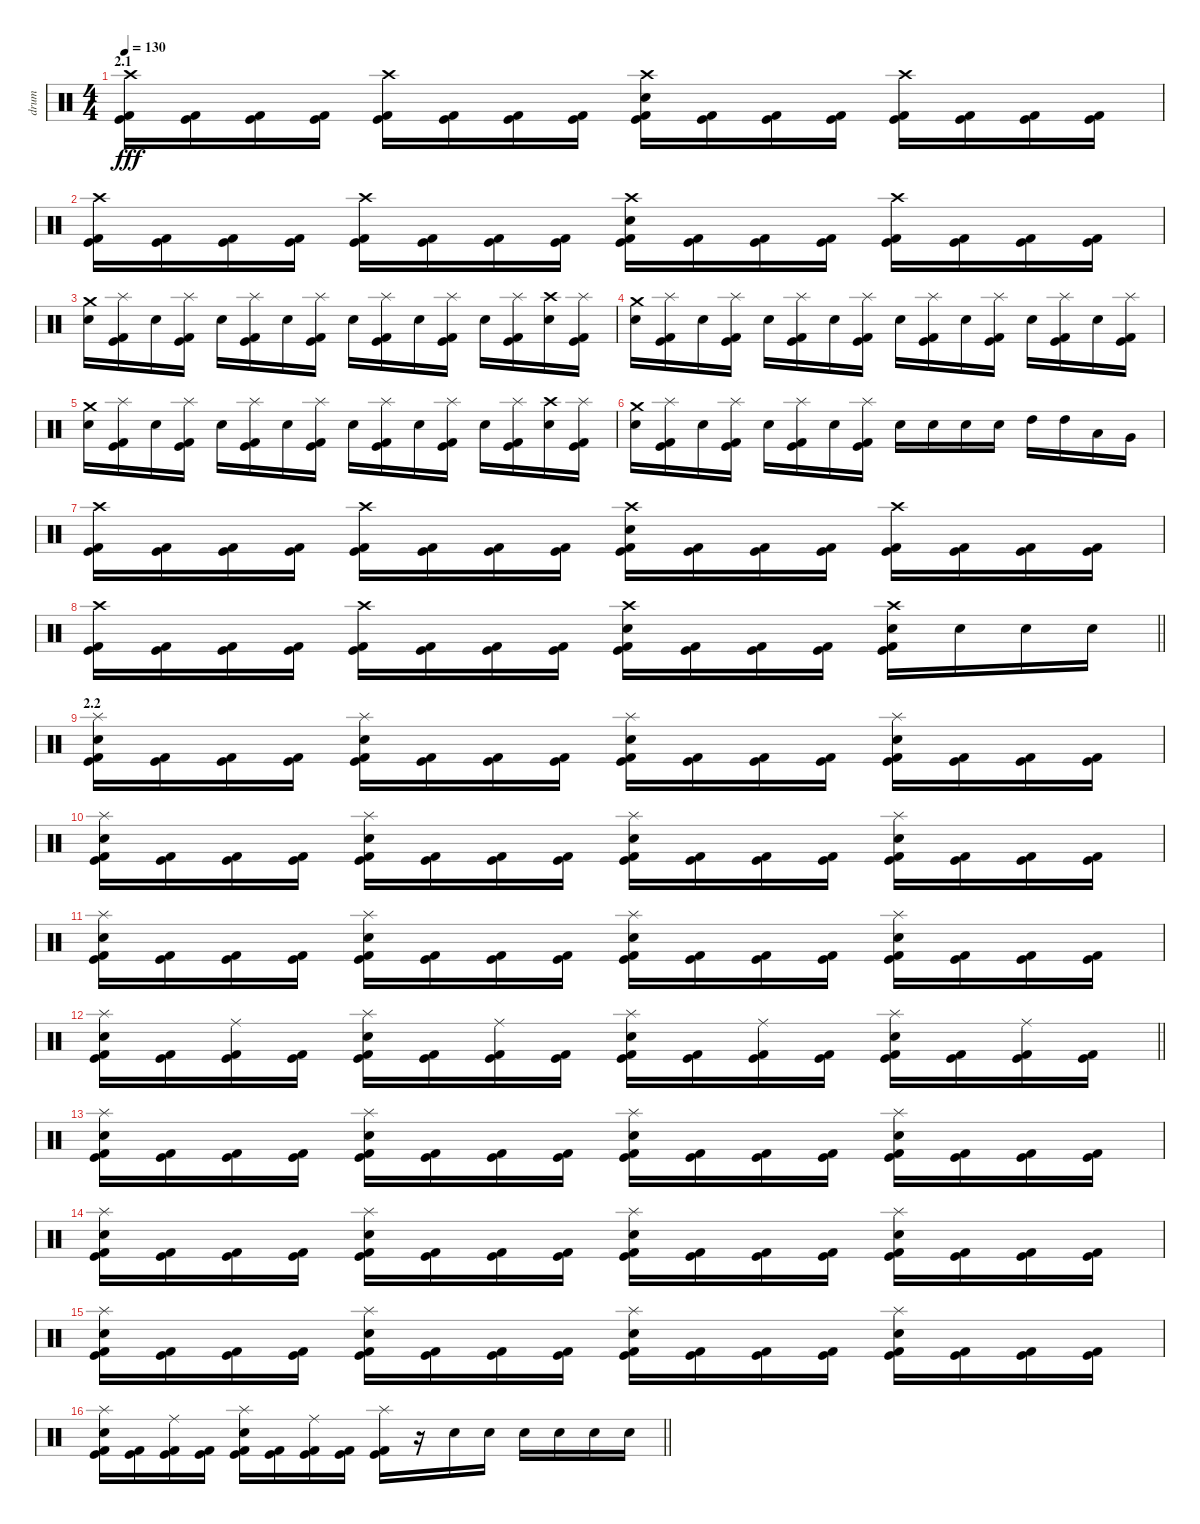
\track ("drum" "drum") {instrument percussion}
\staff {score}
\articulation defaults
\ts (4 4)
\section ("" "2.1")
\tempo 130
\clef neutral
\ks c
("Crash high (hit)" "Kick (hit)" "Kick (hit) 2").16{dy fff} ("Kick (hit)" "Kick (hit) 2").16 ("Kick (hit)" "Kick (hit) 2").16 ("Kick (hit)" "Kick (hit) 2").16 ("Crash high (hit)" "Kick (hit)" "Kick (hit) 2").16 ("Kick (hit)" "Kick (hit) 2").16 ("Kick (hit)" "Kick (hit) 2").16 ("Kick (hit)" "Kick (hit) 2").16 ("Crash high (hit)" "Snare (hit) 2" "Kick (hit)" "Kick (hit) 2").16 ("Kick (hit)" "Kick (hit) 2").16 ("Kick (hit)" "Kick (hit) 2").16 ("Kick (hit)" "Kick (hit) 2").16 ("Crash high (hit)" "Kick (hit)" "Kick (hit) 2").16 ("Kick (hit)" "Kick (hit) 2").16 ("Kick (hit)" "Kick (hit) 2").16 ("Kick (hit)" "Kick (hit) 2").16 |
("Crash high (hit)" "Kick (hit)" "Kick (hit) 2").16 ("Kick (hit)" "Kick (hit) 2").16 ("Kick (hit)" "Kick (hit) 2").16 ("Kick (hit)" "Kick (hit) 2").16 ("Crash high (hit)" "Kick (hit)" "Kick (hit) 2").16 ("Kick (hit)" "Kick (hit) 2").16 ("Kick (hit)" "Kick (hit) 2").16 ("Kick (hit)" "Kick (hit) 2").16 ("Crash high (hit)" "Snare (hit) 2" "Kick (hit)" "Kick (hit) 2").16 ("Kick (hit)" "Kick (hit) 2").16 ("Kick (hit)" "Kick (hit) 2").16 ("Kick (hit)" "Kick (hit) 2").16 ("Crash high (hit)" "Kick (hit)" "Kick (hit) 2").16 ("Kick (hit)" "Kick (hit) 2").16 ("Kick (hit)" "Kick (hit) 2").16 ("Kick (hit)" "Kick (hit) 2").16 |
("Crash medium (hit)" "Snare (hit) 2").16 ("Splash (hit)" "Kick (hit)" "Kick (hit) 2").16 "Snare (hit) 2".16 ("Splash (hit)" "Kick (hit)" "Kick (hit) 2").16 "Snare (hit) 2".16 ("Splash (hit)" "Kick (hit)" "Kick (hit) 2").16 "Snare (hit) 2".16 ("Splash (hit)" "Kick (hit)" "Kick (hit) 2").16 "Snare (hit) 2".16 ("Splash (hit)" "Kick (hit)" "Kick (hit) 2").16 "Snare (hit) 2".16 ("Splash (hit)" "Kick (hit)" "Kick (hit) 2").16 "Snare (hit) 2".16 ("Splash (hit)" "Kick (hit)" "Kick (hit) 2").16 ("Crash high (hit)" "Snare (hit) 2").16 ("Splash (hit)" "Kick (hit)" "Kick (hit) 2").16 |
("Crash medium (hit)" "Snare (hit) 2").16 ("Splash (hit)" "Kick (hit)" "Kick (hit) 2").16 "Snare (hit) 2".16 ("Splash (hit)" "Kick (hit)" "Kick (hit) 2").16 "Snare (hit) 2".16 ("Splash (hit)" "Kick (hit)" "Kick (hit) 2").16 "Snare (hit) 2".16 ("Splash (hit)" "Kick (hit)" "Kick (hit) 2").16 "Snare (hit) 2".16 ("Splash (hit)" "Kick (hit)" "Kick (hit) 2").16 "Snare (hit) 2".16 ("Splash (hit)" "Kick (hit)" "Kick (hit) 2").16 "Snare (hit) 2".16 ("Splash (hit)" "Kick (hit)" "Kick (hit) 2").16 "Snare (hit) 2".16 ("Splash (hit)" "Kick (hit)" "Kick (hit) 2").16 |
("Crash medium (hit)" "Snare (hit) 2").16 ("Splash (hit)" "Kick (hit)" "Kick (hit) 2").16 "Snare (hit) 2".16 ("Splash (hit)" "Kick (hit)" "Kick (hit) 2").16 "Snare (hit) 2".16 ("Splash (hit)" "Kick (hit)" "Kick (hit) 2").16 "Snare (hit) 2".16 ("Splash (hit)" "Kick (hit)" "Kick (hit) 2").16 "Snare (hit) 2".16 ("Splash (hit)" "Kick (hit)" "Kick (hit) 2").16 "Snare (hit) 2".16 ("Splash (hit)" "Kick (hit)" "Kick (hit) 2").16 "Snare (hit) 2".16 ("Splash (hit)" "Kick (hit)" "Kick (hit) 2").16 ("Crash high (hit)" "Snare (hit) 2").16 ("Splash (hit)" "Kick (hit)" "Kick (hit) 2").16 |
("Crash medium (hit)" "Snare (hit) 2").16 ("Splash (hit)" "Kick (hit)" "Kick (hit) 2").16 "Snare (hit) 2".16 ("Splash (hit)" "Kick (hit)" "Kick (hit) 2").16 "Snare (hit) 2".16 ("Splash (hit)" "Kick (hit)" "Kick (hit) 2").16 "Snare (hit) 2".16 ("Splash (hit)" "Kick (hit)" "Kick (hit) 2").16 "Snare (hit) 2".16 "Snare (hit) 2".16 "Snare (hit) 2".16 "Snare (hit) 2".16 "High Tom (hit)".16 "High Tom (hit)".16 "Low Tom (hit)".16 "Very Low Tom (hit)".16 |
("Crash high (hit)" "Kick (hit)" "Kick (hit) 2").16 ("Kick (hit)" "Kick (hit) 2").16 ("Kick (hit)" "Kick (hit) 2").16 ("Kick (hit)" "Kick (hit) 2").16 ("Crash high (hit)" "Kick (hit)" "Kick (hit) 2").16 ("Kick (hit)" "Kick (hit) 2").16 ("Kick (hit)" "Kick (hit) 2").16 ("Kick (hit)" "Kick (hit) 2").16 ("Crash high (hit)" "Snare (hit) 2" "Kick (hit)" "Kick (hit) 2").16 ("Kick (hit)" "Kick (hit) 2").16 ("Kick (hit)" "Kick (hit) 2").16 ("Kick (hit)" "Kick (hit) 2").16 ("Crash high (hit)" "Kick (hit)" "Kick (hit) 2").16 ("Kick (hit)" "Kick (hit) 2").16 ("Kick (hit)" "Kick (hit) 2").16 ("Kick (hit)" "Kick (hit) 2").16 |
\barLineRight lightlight
("Crash high (hit)" "Kick (hit)" "Kick (hit) 2").16 ("Kick (hit)" "Kick (hit) 2").16 ("Kick (hit)" "Kick (hit) 2").16 ("Kick (hit)" "Kick (hit) 2").16 ("Crash high (hit)" "Kick (hit)" "Kick (hit) 2").16 ("Kick (hit)" "Kick (hit) 2").16 ("Kick (hit)" "Kick (hit) 2").16 ("Kick (hit)" "Kick (hit) 2").16 ("Crash high (hit)" "Snare (hit) 2" "Kick (hit)" "Kick (hit) 2").16 ("Kick (hit)" "Kick (hit) 2").16 ("Kick (hit)" "Kick (hit) 2").16 ("Kick (hit)" "Kick (hit) 2").16 ("Crash high (hit)" "Snare (hit) 2" "Kick (hit)" "Kick (hit) 2").16 "Snare (hit) 2".16 "Snare (hit) 2".16 "Snare (hit) 2".16 |
\section ("" "2.2")
("Splash (hit)" "Snare (hit) 2" "Kick (hit)" "Kick (hit) 2").16 ("Kick (hit)" "Kick (hit) 2").16 ("Kick (hit)" "Kick (hit) 2").16 ("Kick (hit)" "Kick (hit) 2").16 ("Splash (hit)" "Snare (hit) 2" "Kick (hit)" "Kick (hit) 2").16 ("Kick (hit)" "Kick (hit) 2").16 ("Kick (hit)" "Kick (hit) 2").16 ("Kick (hit)" "Kick (hit) 2").16 ("Splash (hit)" "Snare (hit) 2" "Kick (hit)" "Kick (hit) 2").16 ("Kick (hit)" "Kick (hit) 2").16 ("Kick (hit)" "Kick (hit) 2").16 ("Kick (hit)" "Kick (hit) 2").16 ("Splash (hit)" "Snare (hit) 2" "Kick (hit)" "Kick (hit) 2").16 ("Kick (hit)" "Kick (hit) 2").16 ("Kick (hit)" "Kick (hit) 2").16 ("Kick (hit)" "Kick (hit) 2").16 |
("Splash (hit)" "Snare (hit) 2" "Kick (hit)" "Kick (hit) 2").16 ("Kick (hit)" "Kick (hit) 2").16 ("Kick (hit)" "Kick (hit) 2").16 ("Kick (hit)" "Kick (hit) 2").16 ("Splash (hit)" "Snare (hit) 2" "Kick (hit)" "Kick (hit) 2").16 ("Kick (hit)" "Kick (hit) 2").16 ("Kick (hit)" "Kick (hit) 2").16 ("Kick (hit)" "Kick (hit) 2").16 ("Splash (hit)" "Snare (hit) 2" "Kick (hit)" "Kick (hit) 2").16 ("Kick (hit)" "Kick (hit) 2").16 ("Kick (hit)" "Kick (hit) 2").16 ("Kick (hit)" "Kick (hit) 2").16 ("Splash (hit)" "Snare (hit) 2" "Kick (hit)" "Kick (hit) 2").16 ("Kick (hit)" "Kick (hit) 2").16 ("Kick (hit)" "Kick (hit) 2").16 ("Kick (hit)" "Kick (hit) 2").16 |
("Splash (hit)" "Snare (hit) 2" "Kick (hit)" "Kick (hit) 2").16 ("Kick (hit)" "Kick (hit) 2").16 ("Kick (hit)" "Kick (hit) 2").16 ("Kick (hit)" "Kick (hit) 2").16 ("Splash (hit)" "Snare (hit) 2" "Kick (hit)" "Kick (hit) 2").16 ("Kick (hit)" "Kick (hit) 2").16 ("Kick (hit)" "Kick (hit) 2").16 ("Kick (hit)" "Kick (hit) 2").16 ("Splash (hit)" "Snare (hit) 2" "Kick (hit)" "Kick (hit) 2").16 ("Kick (hit)" "Kick (hit) 2").16 ("Kick (hit)" "Kick (hit) 2").16 ("Kick (hit)" "Kick (hit) 2").16 ("Splash (hit)" "Snare (hit) 2" "Kick (hit)" "Kick (hit) 2").16 ("Kick (hit)" "Kick (hit) 2").16 ("Kick (hit)" "Kick (hit) 2").16 ("Kick (hit)" "Kick (hit) 2").16 |
\barLineRight lightlight
("Splash (hit)" "Snare (hit) 2" "Kick (hit)" "Kick (hit) 2").16 ("Kick (hit)" "Kick (hit) 2").16 ("Ride (middle)" "Kick (hit)" "Kick (hit) 2").16 ("Kick (hit)" "Kick (hit) 2").16 ("Splash (hit)" "Snare (hit) 2" "Kick (hit)" "Kick (hit) 2").16 ("Kick (hit)" "Kick (hit) 2").16 ("Ride (middle)" "Kick (hit)" "Kick (hit) 2").16 ("Kick (hit)" "Kick (hit) 2").16 ("Splash (hit)" "Snare (hit) 2" "Kick (hit)" "Kick (hit) 2").16 ("Kick (hit)" "Kick (hit) 2").16 ("Ride (middle)" "Kick (hit)" "Kick (hit) 2").16 ("Kick (hit)" "Kick (hit) 2").16 ("Splash (hit)" "Snare (hit) 2" "Kick (hit)" "Kick (hit) 2").16 ("Kick (hit)" "Kick (hit) 2").16 ("Ride (middle)" "Kick (hit)" "Kick (hit) 2").16 ("Kick (hit)" "Kick (hit) 2").16 |
("Splash (hit)" "Snare (hit) 2" "Kick (hit)" "Kick (hit) 2").16 ("Kick (hit)" "Kick (hit) 2").16 ("Kick (hit)" "Kick (hit) 2").16 ("Kick (hit)" "Kick (hit) 2").16 ("Splash (hit)" "Snare (hit) 2" "Kick (hit)" "Kick (hit) 2").16 ("Kick (hit)" "Kick (hit) 2").16 ("Kick (hit)" "Kick (hit) 2").16 ("Kick (hit)" "Kick (hit) 2").16 ("Splash (hit)" "Snare (hit) 2" "Kick (hit)" "Kick (hit) 2").16 ("Kick (hit)" "Kick (hit) 2").16 ("Kick (hit)" "Kick (hit) 2").16 ("Kick (hit)" "Kick (hit) 2").16 ("Splash (hit)" "Snare (hit) 2" "Kick (hit)" "Kick (hit) 2").16 ("Kick (hit)" "Kick (hit) 2").16 ("Kick (hit)" "Kick (hit) 2").16 ("Kick (hit)" "Kick (hit) 2").16 |
("Splash (hit)" "Snare (hit) 2" "Kick (hit)" "Kick (hit) 2").16 ("Kick (hit)" "Kick (hit) 2").16 ("Kick (hit)" "Kick (hit) 2").16 ("Kick (hit)" "Kick (hit) 2").16 ("Splash (hit)" "Snare (hit) 2" "Kick (hit)" "Kick (hit) 2").16 ("Kick (hit)" "Kick (hit) 2").16 ("Kick (hit)" "Kick (hit) 2").16 ("Kick (hit)" "Kick (hit) 2").16 ("Splash (hit)" "Snare (hit) 2" "Kick (hit)" "Kick (hit) 2").16 ("Kick (hit)" "Kick (hit) 2").16 ("Kick (hit)" "Kick (hit) 2").16 ("Kick (hit)" "Kick (hit) 2").16 ("Splash (hit)" "Snare (hit) 2" "Kick (hit)" "Kick (hit) 2").16 ("Kick (hit)" "Kick (hit) 2").16 ("Kick (hit)" "Kick (hit) 2").16 ("Kick (hit)" "Kick (hit) 2").16 |
("Splash (hit)" "Snare (hit) 2" "Kick (hit)" "Kick (hit) 2").16 ("Kick (hit)" "Kick (hit) 2").16 ("Kick (hit)" "Kick (hit) 2").16 ("Kick (hit)" "Kick (hit) 2").16 ("Splash (hit)" "Snare (hit) 2" "Kick (hit)" "Kick (hit) 2").16 ("Kick (hit)" "Kick (hit) 2").16 ("Kick (hit)" "Kick (hit) 2").16 ("Kick (hit)" "Kick (hit) 2").16 ("Splash (hit)" "Snare (hit) 2" "Kick (hit)" "Kick (hit) 2").16 ("Kick (hit)" "Kick (hit) 2").16 ("Kick (hit)" "Kick (hit) 2").16 ("Kick (hit)" "Kick (hit) 2").16 ("Splash (hit)" "Snare (hit) 2" "Kick (hit)" "Kick (hit) 2").16 ("Kick (hit)" "Kick (hit) 2").16 ("Kick (hit)" "Kick (hit) 2").16 ("Kick (hit)" "Kick (hit) 2").16 |
\barLineRight lightlight
("Splash (hit)" "Snare (hit) 2" "Kick (hit)" "Kick (hit) 2").16 ("Kick (hit)" "Kick (hit) 2").16 ("Ride (middle)" "Kick (hit)" "Kick (hit) 2").16 ("Kick (hit)" "Kick (hit) 2").16 ("Splash (hit)" "Snare (hit) 2" "Kick (hit)" "Kick (hit) 2").16 ("Kick (hit)" "Kick (hit) 2").16 ("Ride (middle)" "Kick (hit)" "Kick (hit) 2").16 ("Kick (hit)" "Kick (hit) 2").16 ("Splash (hit)" "Kick (hit)" "Kick (hit) 2").16 r.16 "Snare (hit) 2".16 "Snare (hit) 2".16 "Snare (hit) 2".16 "Snare (hit) 2".16 "Snare (hit) 2".16 "Snare (hit) 2".16
